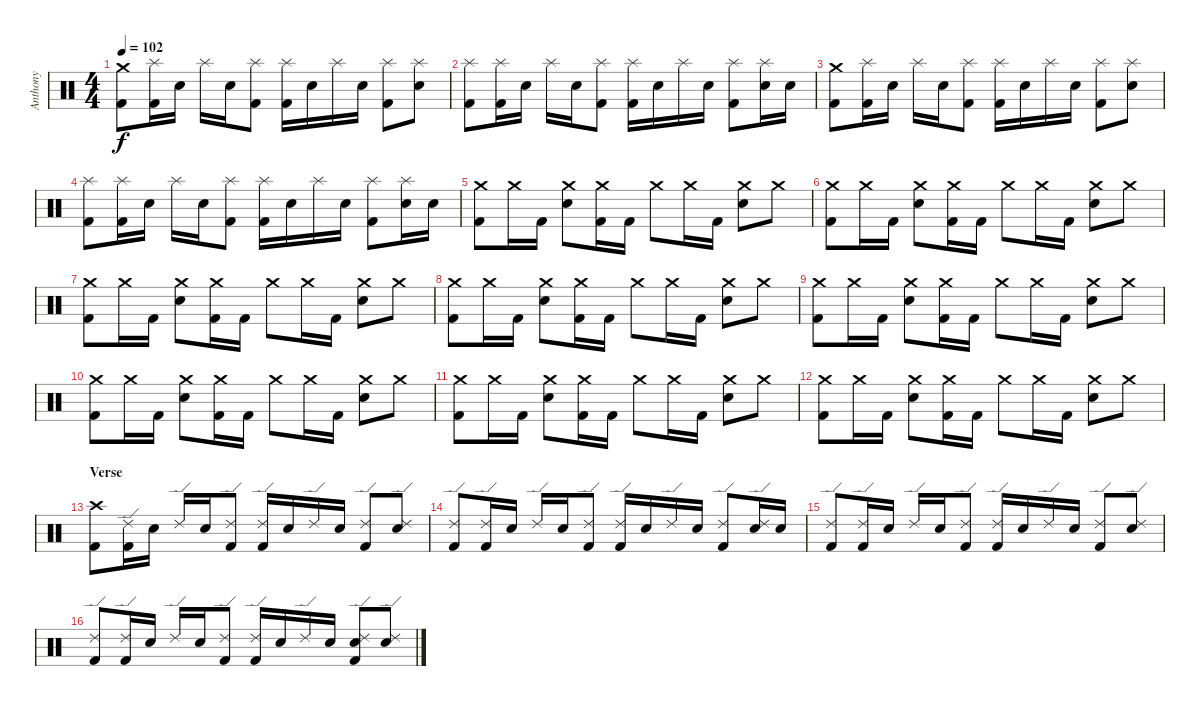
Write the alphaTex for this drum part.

\track ("Anthony" "Anthony") {instrument percussion}
\staff {score}
\articulation defaults
\ts (4 4)
\tempo 102
\clef neutral
\ks c
("Crash medium (hit)" "Kick (hit) 2").8{dy f} ("Splash (hit)" "Kick (hit) 2").16 "Electric Snare (hit)".16 "Splash (hit)".16 "Electric Snare (hit)".16 ("Splash (hit)" "Kick (hit) 2").8 ("Splash (hit)" "Kick (hit) 2").16 "Electric Snare (hit)".16 "Splash (hit)".16 "Electric Snare (hit)".16 ("Splash (hit)" "Kick (hit) 2").8 ("Splash (hit)" "Electric Snare (hit)").8 |
("Splash (hit)" "Kick (hit) 2").8 ("Splash (hit)" "Kick (hit) 2").16 "Electric Snare (hit)".16 "Splash (hit)".16 "Electric Snare (hit)".16 ("Splash (hit)" "Kick (hit) 2").8 ("Splash (hit)" "Kick (hit) 2").16 "Electric Snare (hit)".16 "Splash (hit)".16 "Electric Snare (hit)".16 ("Splash (hit)" "Kick (hit) 2").8 ("Splash (hit)" "Electric Snare (hit)").16 "Electric Snare (hit)".16 |
("Crash medium (hit)" "Kick (hit) 2").8 ("Splash (hit)" "Kick (hit) 2").16 "Electric Snare (hit)".16 "Splash (hit)".16 "Electric Snare (hit)".16 ("Splash (hit)" "Kick (hit) 2").8 ("Splash (hit)" "Kick (hit) 2").16 "Electric Snare (hit)".16 "Splash (hit)".16 "Electric Snare (hit)".16 ("Splash (hit)" "Kick (hit) 2").8 ("Splash (hit)" "Electric Snare (hit)").8 |
("Splash (hit)" "Kick (hit) 2").8 ("Splash (hit)" "Kick (hit) 2").16 "Electric Snare (hit)".16 "Splash (hit)".16 "Electric Snare (hit)".16 ("Splash (hit)" "Kick (hit) 2").8 ("Splash (hit)" "Kick (hit) 2").16 "Electric Snare (hit)".16 "Splash (hit)".16 "Electric Snare (hit)".16 ("Splash (hit)" "Kick (hit) 2").8 ("Splash (hit)" "Electric Snare (hit)").16 "Electric Snare (hit)".16 |
("Crash medium (hit)" "Kick (hit) 2").8 "Crash medium (hit)".16 "Kick (hit) 2".16 ("Crash medium (hit)" "Electric Snare (hit)").8 ("Crash medium (hit)" "Kick (hit) 2").16 "Kick (hit) 2".16 "Crash medium (hit)".8 "Crash medium (hit)".16 "Kick (hit) 2".16 ("Crash medium (hit)" "Electric Snare (hit)").8 "Crash medium (hit)".8 |
("Crash medium (hit)" "Kick (hit) 2").8 "Crash medium (hit)".16 "Kick (hit) 2".16 ("Crash medium (hit)" "Electric Snare (hit)").8 ("Crash medium (hit)" "Kick (hit) 2").16 "Kick (hit) 2".16 "Crash medium (hit)".8 "Crash medium (hit)".16 "Kick (hit) 2".16 ("Crash medium (hit)" "Electric Snare (hit)").8 "Crash medium (hit)".8 |
("Crash medium (hit)" "Kick (hit) 2").8 "Crash medium (hit)".16 "Kick (hit) 2".16 ("Crash medium (hit)" "Electric Snare (hit)").8 ("Crash medium (hit)" "Kick (hit) 2").16 "Kick (hit) 2".16 "Crash medium (hit)".8 "Crash medium (hit)".16 "Kick (hit) 2".16 ("Crash medium (hit)" "Electric Snare (hit)").8 "Crash medium (hit)".8 |
("Crash medium (hit)" "Kick (hit) 2").8 "Crash medium (hit)".16 "Kick (hit) 2".16 ("Crash medium (hit)" "Electric Snare (hit)").8 ("Crash medium (hit)" "Kick (hit) 2").16 "Kick (hit) 2".16 "Crash medium (hit)".8 "Crash medium (hit)".16 "Kick (hit) 2".16 ("Crash medium (hit)" "Electric Snare (hit)").8 "Crash medium (hit)".8 |
("Crash medium (hit)" "Kick (hit) 2").8 "Crash medium (hit)".16 "Kick (hit) 2".16 ("Crash medium (hit)" "Electric Snare (hit)").8 ("Crash medium (hit)" "Kick (hit) 2").16 "Kick (hit) 2".16 "Crash medium (hit)".8 "Crash medium (hit)".16 "Kick (hit) 2".16 ("Crash medium (hit)" "Electric Snare (hit)").8 "Crash medium (hit)".8 |
("Crash medium (hit)" "Kick (hit) 2").8 "Crash medium (hit)".16 "Kick (hit) 2".16 ("Crash medium (hit)" "Electric Snare (hit)").8 ("Crash medium (hit)" "Kick (hit) 2").16 "Kick (hit) 2".16 "Crash medium (hit)".8 "Crash medium (hit)".16 "Kick (hit) 2".16 ("Crash medium (hit)" "Electric Snare (hit)").8 "Crash medium (hit)".8 |
("Crash medium (hit)" "Kick (hit) 2").8 "Crash medium (hit)".16 "Kick (hit) 2".16 ("Crash medium (hit)" "Electric Snare (hit)").8 ("Crash medium (hit)" "Kick (hit) 2").16 "Kick (hit) 2".16 "Crash medium (hit)".8 "Crash medium (hit)".16 "Kick (hit) 2".16 ("Crash medium (hit)" "Electric Snare (hit)").8 "Crash medium (hit)".8 |
("Crash medium (hit)" "Kick (hit) 2").8 "Crash medium (hit)".16 "Kick (hit) 2".16 ("Crash medium (hit)" "Electric Snare (hit)").8 ("Crash medium (hit)" "Kick (hit) 2").16 "Kick (hit) 2".16 "Crash medium (hit)".8 "Crash medium (hit)".16 "Kick (hit) 2".16 ("Crash medium (hit)" "Electric Snare (hit)").8 "Crash medium (hit)".8 |
\section ("" "Verse")
("Crash high (hit)" "Kick (hit) 2").8 ("Ride (edge) 2" "Kick (hit) 2").16 "Electric Snare (hit)".16 "Ride (edge) 2".16 "Electric Snare (hit)".16 ("Ride (edge) 2" "Kick (hit) 2").8 ("Ride (edge) 2" "Kick (hit) 2").16 "Electric Snare (hit)".16 "Ride (edge) 2".16 "Electric Snare (hit)".16 ("Ride (edge) 2" "Kick (hit) 2").8 ("Ride (edge) 2" "Electric Snare (hit)").8 |
("Ride (edge) 2" "Kick (hit) 2").8 ("Ride (edge) 2" "Kick (hit) 2").16 "Electric Snare (hit)".16 "Ride (edge) 2".16 "Electric Snare (hit)".16 ("Ride (edge) 2" "Kick (hit) 2").8 ("Ride (edge) 2" "Kick (hit) 2").16 "Electric Snare (hit)".16 "Ride (edge) 2".16 "Electric Snare (hit)".16 ("Ride (edge) 2" "Kick (hit) 2").8 ("Ride (edge) 2" "Electric Snare (hit)").16 "Electric Snare (hit)".16 |
("Ride (edge) 2" "Kick (hit) 2").8 ("Ride (edge) 2" "Kick (hit) 2").16 "Electric Snare (hit)".16 "Ride (edge) 2".16 "Electric Snare (hit)".16 ("Ride (edge) 2" "Kick (hit) 2").8 ("Ride (edge) 2" "Kick (hit) 2").16 "Electric Snare (hit)".16 "Ride (edge) 2".16 "Electric Snare (hit)".16 ("Ride (edge) 2" "Kick (hit) 2").8 ("Ride (edge) 2" "Electric Snare (hit)").8 |
("Ride (edge) 2" "Kick (hit) 2").8 ("Ride (edge) 2" "Kick (hit) 2").16 "Electric Snare (hit)".16 "Ride (edge) 2".16 "Electric Snare (hit)".16 ("Ride (edge) 2" "Kick (hit) 2").8 ("Ride (edge) 2" "Kick (hit) 2").16 "Electric Snare (hit)".16 "Ride (edge) 2".16 "Electric Snare (hit)".16 ("Ride (edge) 2" "Electric Snare (hit)" "Kick (hit) 2").8 ("Ride (edge) 2" "Electric Snare (hit)").8
